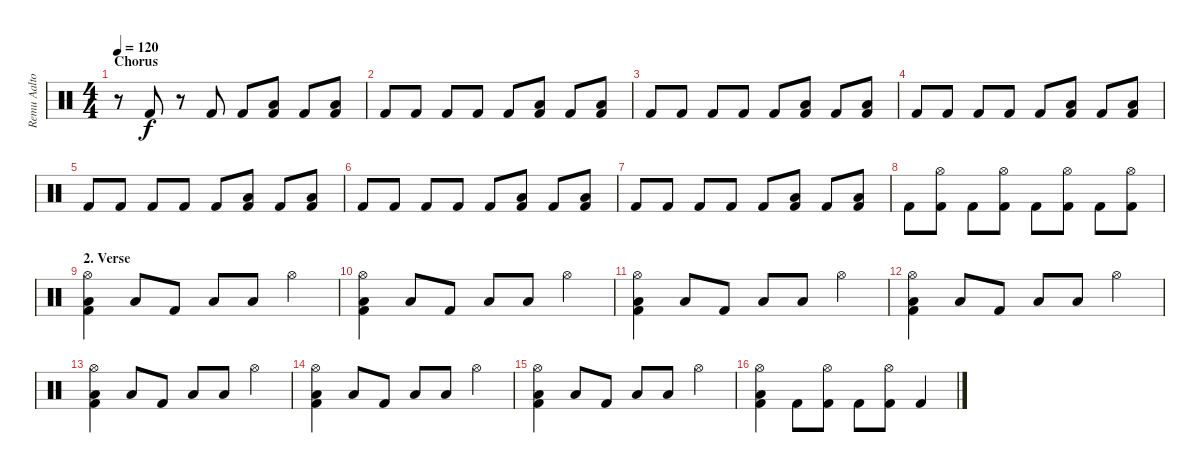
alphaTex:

\track ("Remu Aaltonen" "Remu Aalto") {instrument percussion}
\staff {score}
\articulation defaults
\ts (4 4)
\section ("" "Chorus")
\tempo 120
\clef neutral
\ks c
r.8{dy f} "Kick (hit) 2".8 r.8 "Kick (hit) 2".8 "Kick (hit) 2".8 ("Low Tom (hit)" "Kick (hit) 2").8 "Kick (hit) 2".8 ("Low Tom (hit)" "Kick (hit) 2").8 |
"Kick (hit) 2".8 "Kick (hit) 2".8 "Kick (hit) 2".8 "Kick (hit) 2".8 "Kick (hit) 2".8 ("Low Tom (hit)" "Kick (hit) 2").8 "Kick (hit) 2".8 ("Low Tom (hit)" "Kick (hit) 2").8 |
"Kick (hit) 2".8 "Kick (hit) 2".8 "Kick (hit) 2".8 "Kick (hit) 2".8 "Kick (hit) 2".8 ("Low Tom (hit)" "Kick (hit) 2").8 "Kick (hit) 2".8 ("Low Tom (hit)" "Kick (hit) 2").8 |
"Kick (hit) 2".8 "Kick (hit) 2".8 "Kick (hit) 2".8 "Kick (hit) 2".8 "Kick (hit) 2".8 ("Low Tom (hit)" "Kick (hit) 2").8 "Kick (hit) 2".8 ("Low Tom (hit)" "Kick (hit) 2").8 |
"Kick (hit) 2".8 "Kick (hit) 2".8 "Kick (hit) 2".8 "Kick (hit) 2".8 "Kick (hit) 2".8 ("Low Tom (hit)" "Kick (hit) 2").8 "Kick (hit) 2".8 ("Low Tom (hit)" "Kick (hit) 2").8 |
"Kick (hit) 2".8 "Kick (hit) 2".8 "Kick (hit) 2".8 "Kick (hit) 2".8 "Kick (hit) 2".8 ("Low Tom (hit)" "Kick (hit) 2").8 "Kick (hit) 2".8 ("Low Tom (hit)" "Kick (hit) 2").8 |
"Kick (hit) 2".8 "Kick (hit) 2".8 "Kick (hit) 2".8 "Kick (hit) 2".8 "Kick (hit) 2".8 ("Low Tom (hit)" "Kick (hit) 2").8 "Kick (hit) 2".8 ("Low Tom (hit)" "Kick (hit) 2").8 |
"Kick (hit) 2".8 ("Kick (hit) 2" "Hi-Hat (open)").8 "Kick (hit) 2".8 ("Kick (hit) 2" "Hi-Hat (open)").8 "Kick (hit) 2".8 ("Kick (hit) 2" "Hi-Hat (open)").8 "Kick (hit) 2".8 ("Kick (hit) 2" "Hi-Hat (open)").8 |
\section ("" "2. Verse")
("Hi-Hat (open)" "Kick (hit) 2" "Low Tom (hit)").4 "Low Tom (hit)".8 "Kick (hit) 2".8 "Low Tom (hit)".8 "Low Tom (hit)".8 "Hi-Hat (open)".4 |
("Hi-Hat (open)" "Kick (hit) 2" "Low Tom (hit)").4 "Low Tom (hit)".8 "Kick (hit) 2".8 "Low Tom (hit)".8 "Low Tom (hit)".8 "Hi-Hat (open)".4 |
("Hi-Hat (open)" "Kick (hit) 2" "Low Tom (hit)").4 "Low Tom (hit)".8 "Kick (hit) 2".8 "Low Tom (hit)".8 "Low Tom (hit)".8 "Hi-Hat (open)".4 |
("Hi-Hat (open)" "Kick (hit) 2" "Low Tom (hit)").4 "Low Tom (hit)".8 "Kick (hit) 2".8 "Low Tom (hit)".8 "Low Tom (hit)".8 "Hi-Hat (open)".4 |
("Hi-Hat (open)" "Kick (hit) 2" "Low Tom (hit)").4 "Low Tom (hit)".8 "Kick (hit) 2".8 "Low Tom (hit)".8 "Low Tom (hit)".8 "Hi-Hat (open)".4 |
("Hi-Hat (open)" "Kick (hit) 2" "Low Tom (hit)").4 "Low Tom (hit)".8 "Kick (hit) 2".8 "Low Tom (hit)".8 "Low Tom (hit)".8 "Hi-Hat (open)".4 |
("Hi-Hat (open)" "Kick (hit) 2" "Low Tom (hit)").4 "Low Tom (hit)".8 "Kick (hit) 2".8 "Low Tom (hit)".8 "Low Tom (hit)".8 "Hi-Hat (open)".4 |
("Hi-Hat (open)" "Kick (hit) 2" "Low Tom (hit)").4 "Kick (hit) 2".8 ("Kick (hit) 2" "Hi-Hat (open)").8 "Kick (hit) 2".8 ("Kick (hit) 2" "Hi-Hat (open)").8 "Kick (hit) 2".4
